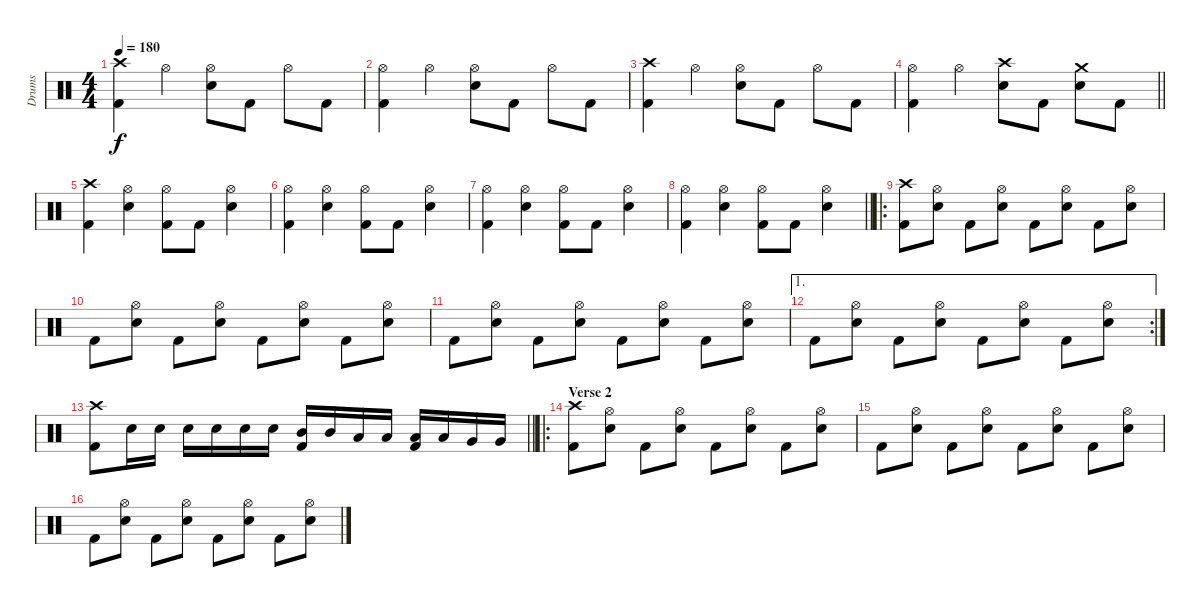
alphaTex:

\track ("Drums" "Drums") {instrument percussion}
\staff {score}
\articulation defaults
\ts (4 4)
\tempo 180
\clef neutral
\ks c
("Kick (hit) 2" "Crash high (hit)").4{dy f} "Hi-Hat (open)".4 ("Electric Snare (hit)" "Hi-Hat (open)").8 "Kick (hit) 2".8 "Hi-Hat (open)".8 "Kick (hit) 2".8 |
("Kick (hit) 2" "Hi-Hat (open)").4 "Hi-Hat (open)".4 ("Electric Snare (hit)" "Hi-Hat (open)").8 "Kick (hit) 2".8 "Hi-Hat (open)".8 "Kick (hit) 2".8 |
("Kick (hit) 2" "Crash high (hit)").4 "Hi-Hat (open)".4 ("Electric Snare (hit)" "Hi-Hat (open)").8 "Kick (hit) 2".8 "Hi-Hat (open)".8 "Kick (hit) 2".8 |
\barLineRight lightlight
("Kick (hit) 2" "Hi-Hat (open)").4 "Hi-Hat (open)".4 ("Electric Snare (hit)" "Crash high (hit)").8 "Kick (hit) 2".8 ("Electric Snare (hit)" "Crash medium (hit)").8 "Kick (hit) 2".8 |
\section ("" "")
("Kick (hit) 2" "Crash high (hit)").4 ("Electric Snare (hit)" "Hi-Hat (open)").4 ("Kick (hit) 2" "Hi-Hat (open)").8 "Kick (hit) 2".8 ("Electric Snare (hit)" "Hi-Hat (open)").4 |
("Kick (hit) 2" "Hi-Hat (open)").4 ("Electric Snare (hit)" "Hi-Hat (open)").4 ("Kick (hit) 2" "Hi-Hat (open)").8 "Kick (hit) 2".8 ("Electric Snare (hit)" "Hi-Hat (open)").4 |
("Kick (hit) 2" "Hi-Hat (open)").4 ("Electric Snare (hit)" "Hi-Hat (open)").4 ("Kick (hit) 2" "Hi-Hat (open)").8 "Kick (hit) 2".8 ("Electric Snare (hit)" "Hi-Hat (open)").4 |
\barLineRight lightlight
("Kick (hit) 2" "Hi-Hat (open)").4 ("Electric Snare (hit)" "Hi-Hat (open)").4 ("Kick (hit) 2" "Hi-Hat (open)").8 "Kick (hit) 2".8 ("Electric Snare (hit)" "Hi-Hat (open)").4 |
\ro
\section ("" "")
("Kick (hit) 2" "Crash high (hit)").8 ("Electric Snare (hit)" "Hi-Hat (open)").8 "Kick (hit) 2".8 ("Electric Snare (hit)" "Hi-Hat (open)").8 "Kick (hit) 2".8 ("Electric Snare (hit)" "Hi-Hat (open)").8 "Kick (hit) 2".8 ("Electric Snare (hit)" "Hi-Hat (open)").8 |
"Kick (hit) 2".8 ("Electric Snare (hit)" "Hi-Hat (open)").8 "Kick (hit) 2".8 ("Electric Snare (hit)" "Hi-Hat (open)").8 "Kick (hit) 2".8 ("Electric Snare (hit)" "Hi-Hat (open)").8 "Kick (hit) 2".8 ("Electric Snare (hit)" "Hi-Hat (open)").8 |
"Kick (hit) 2".8 ("Electric Snare (hit)" "Hi-Hat (open)").8 "Kick (hit) 2".8 ("Electric Snare (hit)" "Hi-Hat (open)").8 "Kick (hit) 2".8 ("Electric Snare (hit)" "Hi-Hat (open)").8 "Kick (hit) 2".8 ("Electric Snare (hit)" "Hi-Hat (open)").8 |
\ae 1
\rc 2 "Kick (hit) 2".8
("Electric Snare (hit)" "Hi-Hat (open)").8 "Kick (hit) 2".8 ("Electric Snare (hit)" "Hi-Hat (open)").8 "Kick (hit) 2".8 ("Electric Snare (hit)" "Hi-Hat (open)").8 "Kick (hit) 2".8 ("Electric Snare (hit)" "Hi-Hat (open)").8 |
\barLineRight lightlight
("Kick (hit) 2" "Crash high (hit)").8 "Electric Snare (hit)".16 "Electric Snare (hit)".16 "Electric Snare (hit)".16 "Electric Snare (hit)".16 "Electric Snare (hit)".16 "Electric Snare (hit)".16 ("Mid Tom (hit)" "Kick (hit) 2").16 "Mid Tom (hit)".16 "Low Tom (hit)".16 "Low Tom (hit)".16 ("Low Tom (hit)" "Kick (hit) 2").16 "Low Tom (hit)".16 "Very Low Tom (hit)".16 "Very Low Tom (hit)".16 |
\ro
\section ("" "Verse 2")
("Kick (hit) 2" "Crash high (hit)").8 ("Electric Snare (hit)" "Hi-Hat (open)").8 "Kick (hit) 2".8 ("Electric Snare (hit)" "Hi-Hat (open)").8 "Kick (hit) 2".8 ("Electric Snare (hit)" "Hi-Hat (open)").8 "Kick (hit) 2".8 ("Electric Snare (hit)" "Hi-Hat (open)").8 |
"Kick (hit) 2".8 ("Electric Snare (hit)" "Hi-Hat (open)").8 "Kick (hit) 2".8 ("Electric Snare (hit)" "Hi-Hat (open)").8 "Kick (hit) 2".8 ("Electric Snare (hit)" "Hi-Hat (open)").8 "Kick (hit) 2".8 ("Electric Snare (hit)" "Hi-Hat (open)").8 |
"Kick (hit) 2".8 ("Electric Snare (hit)" "Hi-Hat (open)").8 "Kick (hit) 2".8 ("Electric Snare (hit)" "Hi-Hat (open)").8 "Kick (hit) 2".8 ("Electric Snare (hit)" "Hi-Hat (open)").8 "Kick (hit) 2".8 ("Electric Snare (hit)" "Hi-Hat (open)").8
